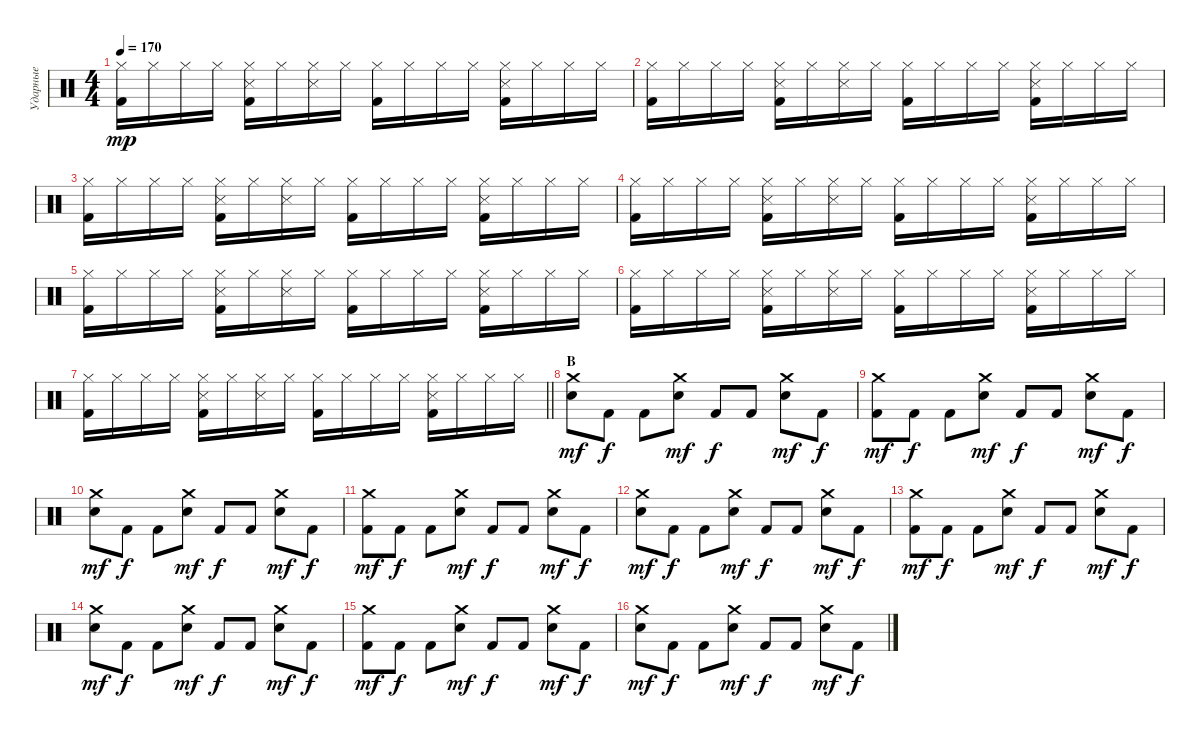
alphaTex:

\track ("Ударные" "Ударные") {instrument percussion}
\staff {score}
\articulation defaults
\ts (4 4)
\tempo 170
\clef neutral
\ks c
("Hi-Hat (closed)" "Kick (hit) 2").16{dy mp} "Hi-Hat (closed)".16 "Hi-Hat (closed)".16 "Hi-Hat (closed)".16 ("Snare (side stick) 3" "Hi-Hat (closed)" "Kick (hit) 2").16 "Hi-Hat (closed)".16 ("Snare (side stick) 3" "Hi-Hat (closed)").16 "Hi-Hat (closed)".16 ("Hi-Hat (closed)" "Kick (hit) 2").16 "Hi-Hat (closed)".16 "Hi-Hat (closed)".16 "Hi-Hat (closed)".16 ("Snare (side stick) 3" "Hi-Hat (closed)" "Kick (hit) 2").16 "Hi-Hat (closed)".16 "Hi-Hat (closed)".16 "Hi-Hat (closed)".16 |
("Hi-Hat (closed)" "Kick (hit) 2").16 "Hi-Hat (closed)".16 "Hi-Hat (closed)".16 "Hi-Hat (closed)".16 ("Snare (side stick) 3" "Hi-Hat (closed)" "Kick (hit) 2").16 "Hi-Hat (closed)".16 ("Snare (side stick) 3" "Hi-Hat (closed)").16 "Hi-Hat (closed)".16 ("Hi-Hat (closed)" "Kick (hit) 2").16 "Hi-Hat (closed)".16 "Hi-Hat (closed)".16 "Hi-Hat (closed)".16 ("Snare (side stick) 3" "Hi-Hat (closed)" "Kick (hit) 2").16 "Hi-Hat (closed)".16 "Hi-Hat (closed)".16 "Hi-Hat (closed)".16 |
("Hi-Hat (closed)" "Kick (hit) 2").16 "Hi-Hat (closed)".16 "Hi-Hat (closed)".16 "Hi-Hat (closed)".16 ("Snare (side stick) 3" "Hi-Hat (closed)" "Kick (hit) 2").16 "Hi-Hat (closed)".16 ("Snare (side stick) 3" "Hi-Hat (closed)").16 "Hi-Hat (closed)".16 ("Hi-Hat (closed)" "Kick (hit) 2").16 "Hi-Hat (closed)".16 "Hi-Hat (closed)".16 "Hi-Hat (closed)".16 ("Snare (side stick) 3" "Hi-Hat (closed)" "Kick (hit) 2").16 "Hi-Hat (closed)".16 "Hi-Hat (closed)".16 "Hi-Hat (closed)".16 |
("Hi-Hat (closed)" "Kick (hit) 2").16 "Hi-Hat (closed)".16 "Hi-Hat (closed)".16 "Hi-Hat (closed)".16 ("Snare (side stick) 3" "Hi-Hat (closed)" "Kick (hit) 2").16 "Hi-Hat (closed)".16 ("Snare (side stick) 3" "Hi-Hat (closed)").16 "Hi-Hat (closed)".16 ("Hi-Hat (closed)" "Kick (hit) 2").16 "Hi-Hat (closed)".16 "Hi-Hat (closed)".16 "Hi-Hat (closed)".16 ("Snare (side stick) 3" "Hi-Hat (closed)" "Kick (hit) 2").16 "Hi-Hat (closed)".16 "Hi-Hat (closed)".16 "Hi-Hat (closed)".16 |
("Hi-Hat (closed)" "Kick (hit) 2").16 "Hi-Hat (closed)".16 "Hi-Hat (closed)".16 "Hi-Hat (closed)".16 ("Snare (side stick) 3" "Hi-Hat (closed)" "Kick (hit) 2").16 "Hi-Hat (closed)".16 ("Snare (side stick) 3" "Hi-Hat (closed)").16 "Hi-Hat (closed)".16 ("Hi-Hat (closed)" "Kick (hit) 2").16 "Hi-Hat (closed)".16 "Hi-Hat (closed)".16 "Hi-Hat (closed)".16 ("Snare (side stick) 3" "Hi-Hat (closed)" "Kick (hit) 2").16 "Hi-Hat (closed)".16 "Hi-Hat (closed)".16 "Hi-Hat (closed)".16 |
("Hi-Hat (closed)" "Kick (hit) 2").16 "Hi-Hat (closed)".16 "Hi-Hat (closed)".16 "Hi-Hat (closed)".16 ("Snare (side stick) 3" "Hi-Hat (closed)" "Kick (hit) 2").16 "Hi-Hat (closed)".16 ("Snare (side stick) 3" "Hi-Hat (closed)").16 "Hi-Hat (closed)".16 ("Hi-Hat (closed)" "Kick (hit) 2").16 "Hi-Hat (closed)".16 "Hi-Hat (closed)".16 "Hi-Hat (closed)".16 ("Snare (side stick) 3" "Hi-Hat (closed)" "Kick (hit) 2").16 "Hi-Hat (closed)".16 "Hi-Hat (closed)".16 "Hi-Hat (closed)".16 |
\barLineRight lightlight
("Hi-Hat (closed)" "Kick (hit) 2").16 "Hi-Hat (closed)".16 "Hi-Hat (closed)".16 "Hi-Hat (closed)".16 ("Snare (side stick) 3" "Hi-Hat (closed)" "Kick (hit) 2").16 "Hi-Hat (closed)".16 ("Snare (side stick) 3" "Hi-Hat (closed)").16 "Hi-Hat (closed)".16 ("Hi-Hat (closed)" "Kick (hit) 2").16 "Hi-Hat (closed)".16 "Hi-Hat (closed)".16 "Hi-Hat (closed)".16 ("Snare (side stick) 3" "Hi-Hat (closed)" "Kick (hit) 2").16 "Hi-Hat (closed)".16 "Hi-Hat (closed)".16 "Hi-Hat (closed)".16 |
\section ("" "B")
("Crash medium (hit)" "Electric Snare (hit)").8{dy mf} "Kick (hit) 2".8{dy f} "Kick (hit) 2".8 ("Crash medium (hit)" "Electric Snare (hit)").8{dy mf} "Kick (hit) 2".8{dy f} "Kick (hit) 2".8 ("Crash medium (hit)" "Electric Snare (hit)").8{dy mf} "Kick (hit) 2".8{dy f} |
("Crash medium (hit)" "Kick (hit) 2").8{dy mf} "Kick (hit) 2".8{dy f} "Kick (hit) 2".8 ("Crash medium (hit)" "Electric Snare (hit)").8{dy mf} "Kick (hit) 2".8{dy f} "Kick (hit) 2".8 ("Crash medium (hit)" "Electric Snare (hit)").8{dy mf} "Kick (hit) 2".8{dy f} |
("Crash medium (hit)" "Electric Snare (hit)").8{dy mf} "Kick (hit) 2".8{dy f} "Kick (hit) 2".8 ("Crash medium (hit)" "Electric Snare (hit)").8{dy mf} "Kick (hit) 2".8{dy f} "Kick (hit) 2".8 ("Crash medium (hit)" "Electric Snare (hit)").8{dy mf} "Kick (hit) 2".8{dy f} |
("Crash medium (hit)" "Kick (hit) 2").8{dy mf} "Kick (hit) 2".8{dy f} "Kick (hit) 2".8 ("Crash medium (hit)" "Electric Snare (hit)").8{dy mf} "Kick (hit) 2".8{dy f} "Kick (hit) 2".8 ("Crash medium (hit)" "Electric Snare (hit)").8{dy mf} "Kick (hit) 2".8{dy f} |
("Crash medium (hit)" "Electric Snare (hit)").8{dy mf} "Kick (hit) 2".8{dy f} "Kick (hit) 2".8 ("Crash medium (hit)" "Electric Snare (hit)").8{dy mf} "Kick (hit) 2".8{dy f} "Kick (hit) 2".8 ("Crash medium (hit)" "Electric Snare (hit)").8{dy mf} "Kick (hit) 2".8{dy f} |
("Crash medium (hit)" "Kick (hit) 2").8{dy mf} "Kick (hit) 2".8{dy f} "Kick (hit) 2".8 ("Crash medium (hit)" "Electric Snare (hit)").8{dy mf} "Kick (hit) 2".8{dy f} "Kick (hit) 2".8 ("Crash medium (hit)" "Electric Snare (hit)").8{dy mf} "Kick (hit) 2".8{dy f} |
("Crash medium (hit)" "Electric Snare (hit)").8{dy mf} "Kick (hit) 2".8{dy f} "Kick (hit) 2".8 ("Crash medium (hit)" "Electric Snare (hit)").8{dy mf} "Kick (hit) 2".8{dy f} "Kick (hit) 2".8 ("Crash medium (hit)" "Electric Snare (hit)").8{dy mf} "Kick (hit) 2".8{dy f} |
("Crash medium (hit)" "Kick (hit) 2").8{dy mf} "Kick (hit) 2".8{dy f} "Kick (hit) 2".8 ("Crash medium (hit)" "Electric Snare (hit)").8{dy mf} "Kick (hit) 2".8{dy f} "Kick (hit) 2".8 ("Crash medium (hit)" "Electric Snare (hit)").8{dy mf} "Kick (hit) 2".8{dy f} |
("Crash medium (hit)" "Electric Snare (hit)").8{dy mf} "Kick (hit) 2".8{dy f} "Kick (hit) 2".8 ("Crash medium (hit)" "Electric Snare (hit)").8{dy mf} "Kick (hit) 2".8{dy f} "Kick (hit) 2".8 ("Crash medium (hit)" "Electric Snare (hit)").8{dy mf} "Kick (hit) 2".8{dy f}
